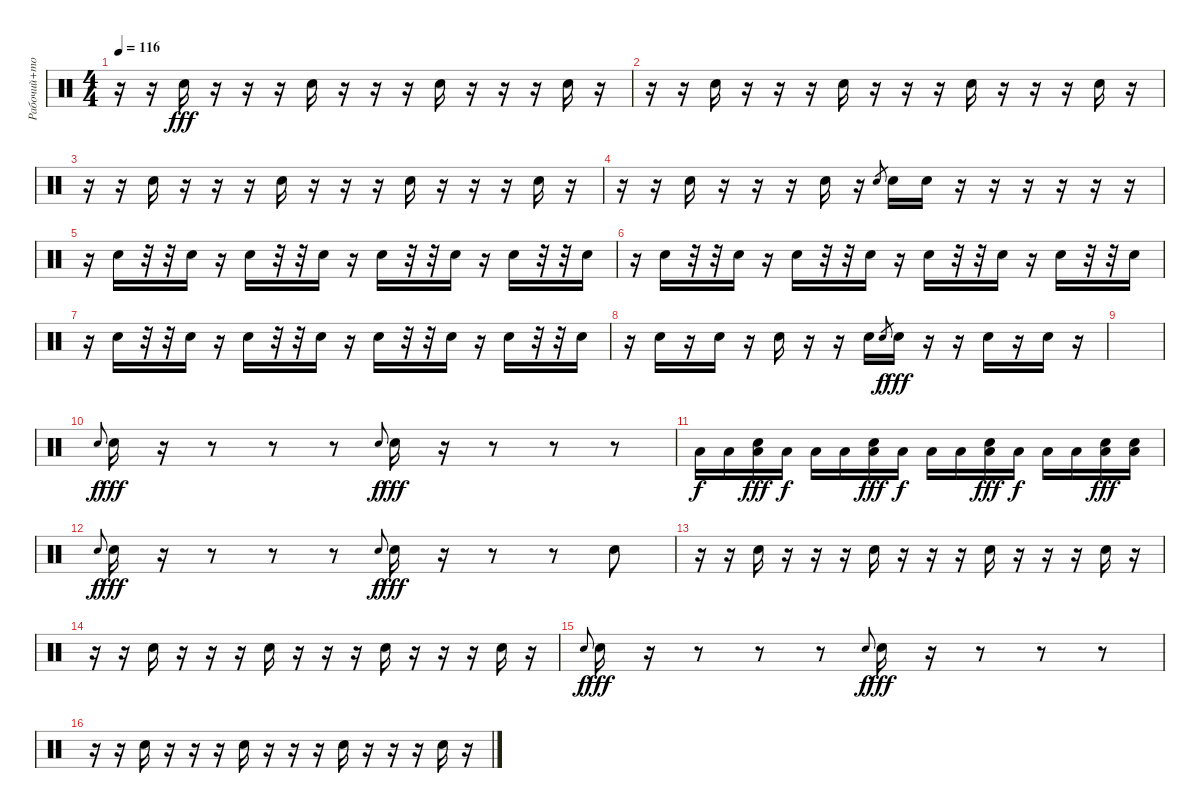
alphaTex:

\track ("Рабочий+томы" "Рабочий+то") {instrument percussion}
\staff {score}
\articulation defaults
\ts (4 4)
\tempo 116
\clef neutral
\ks c
r.16{dy fff} r.16 "Snare (hit) 2".16 r.16 r.16 r.16 "Snare (hit) 2".16 r.16 r.16 r.16 "Snare (hit) 2".16 r.16 r.16 r.16 "Snare (hit) 2".16 r.16 |
r.16 r.16 "Snare (hit) 2".16 r.16 r.16 r.16 "Snare (hit) 2".16 r.16 r.16 r.16 "Snare (hit) 2".16 r.16 r.16 r.16 "Snare (hit) 2".16 r.16 |
r.16 r.16 "Snare (hit) 2".16 r.16 r.16 r.16 "Snare (hit) 2".16 r.16 r.16 r.16 "Snare (hit) 2".16 r.16 r.16 r.16 "Snare (hit) 2".16 r.16 |
r.16 r.16 "Snare (hit) 2".16 r.16 r.16 r.16 "Snare (hit) 2".16 r.16 "Snare (hit) 2".8{gr} "Snare (hit) 2".16 "Snare (hit) 2".16 r.16 r.16 r.16 r.16 r.16 r.16 |
r.16 "Snare (hit) 2".16 r.32 r.32 "Snare (hit) 2".16 r.16 "Snare (hit) 2".16 r.32 r.32 "Snare (hit) 2".16 r.16 "Snare (hit) 2".16 r.32 r.32 "Snare (hit) 2".16 r.16 "Snare (hit) 2".16 r.32 r.32 "Snare (hit) 2".16 |
r.16 "Snare (hit) 2".16 r.32 r.32 "Snare (hit) 2".16 r.16 "Snare (hit) 2".16 r.32 r.32 "Snare (hit) 2".16 r.16 "Snare (hit) 2".16 r.32 r.32 "Snare (hit) 2".16 r.16 "Snare (hit) 2".16 r.32 r.32 "Snare (hit) 2".16 |
r.16 "Snare (hit) 2".16 r.32 r.32 "Snare (hit) 2".16 r.16 "Snare (hit) 2".16 r.32 r.32 "Snare (hit) 2".16 r.16 "Snare (hit) 2".16 r.32 r.32 "Snare (hit) 2".16 r.16 "Snare (hit) 2".16 r.32 r.32 "Snare (hit) 2".16 |
r.16 "Snare (hit) 2".16 r.16 "Snare (hit) 2".16 r.16 "Snare (hit) 2".16 r.16 r.16 "Snare (hit) 2".16 "Snare (hit) 2".8{gr dy f} "Snare (hit) 2".16{dy fff} r.16 r.16 "Snare (hit)".16 r.16 "Snare (hit)".16 r.16 |
|
"Snare (hit) 2".8{gr onbeat dy f} "Snare (hit) 2".16{dy fff} r.16 r.8 r.8 r.8 "Snare (hit) 2".8{gr onbeat dy f} "Snare (hit) 2".16{dy fff} r.16 r.8 r.8 r.8 |
"Low Floor Tom (hit)".16{dy f} "Low Floor Tom (hit)".16 ("Low Floor Tom (hit)" "Snare (hit) 2").16{dy fff} "Low Floor Tom (hit)".16{dy f} "Low Floor Tom (hit)".16 "Low Floor Tom (hit)".16 ("Low Floor Tom (hit)" "Snare (hit) 2").16{dy fff} "Low Floor Tom (hit)".16{dy f} "Low Floor Tom (hit)".16 "Low Floor Tom (hit)".16 ("Low Floor Tom (hit)" "Snare (hit) 2").16{dy fff} "Low Floor Tom (hit)".16{dy f} "Low Floor Tom (hit)".16 "Low Floor Tom (hit)".16 ("Low Floor Tom (hit)" "Snare (hit) 2").16{dy fff} ("Low Floor Tom (hit)" "Snare (hit) 2").16 |
"Snare (hit) 2".8{gr onbeat dy f} "Snare (hit) 2".16{dy fff} r.16 r.8 r.8 r.8 "Snare (hit) 2".8{gr onbeat dy f} "Snare (hit) 2".16{dy fff} r.16 r.8 r.8 "Snare (hit) 2".8 |
r.16 r.16 "Snare (hit) 2".16 r.16 r.16 r.16 "Snare (hit) 2".16 r.16 r.16 r.16 "Snare (hit) 2".16 r.16 r.16 r.16 "Snare (hit) 2".16 r.16 |
r.16 r.16 "Snare (hit) 2".16 r.16 r.16 r.16 "Snare (hit) 2".16 r.16 r.16 r.16 "Snare (hit) 2".16 r.16 r.16 r.16 "Snare (hit) 2".16 r.16 |
"Snare (hit) 2".8{gr onbeat dy f} "Snare (hit) 2".16{dy fff} r.16 r.8 r.8 r.8 "Snare (hit) 2".8{gr onbeat dy f} "Snare (hit) 2".16{dy fff} r.16 r.8 r.8 r.8 |
r.16 r.16 "Snare (hit) 2".16 r.16 r.16 r.16 "Snare (hit) 2".16 r.16 r.16 r.16 "Snare (hit) 2".16 r.16 r.16 r.16 "Snare (hit) 2".16 r.16
